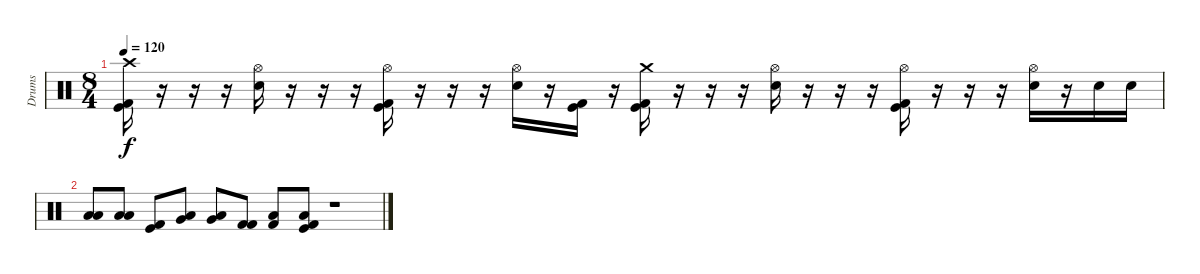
\track ("Drums" "Drums") {instrument percussion}
\staff {score}
\articulation defaults
\ts (8 4)
\tempo 120
\clef neutral
\ks c
("Crash high (hit)" "Kick (hit) 2" "Kick (hit)").16{dy f} r.16 r.16 r.16 ("Hi-Hat (open)" "Electric Snare (hit)").16 r.16 r.16 r.16 ("Hi-Hat (open)" "Kick (hit) 2" "Kick (hit)").16 r.16 r.16 r.16 ("Hi-Hat (open)" "Electric Snare (hit)").16 r.16 ("Kick (hit) 2" "Kick (hit)").16 r.16 ("Crash medium (hit)" "Kick (hit) 2" "Kick (hit)").16 r.16 r.16 r.16 ("Hi-Hat (open)" "Electric Snare (hit)").16 r.16 r.16 r.16 ("Hi-Hat (open)" "Kick (hit) 2" "Kick (hit)").16 r.16 r.16 r.16 ("Hi-Hat (open)" "Electric Snare (hit)").16 r.16 "Electric Snare (hit)".16 "Electric Snare (hit)".16 |
("Low Tom (hit)" "Low Floor Tom (hit)").8 ("Low Tom (hit)" "Low Floor Tom (hit)").8 ("Kick (hit) 2" "Kick (hit)").8 ("Very Low Tom (hit)" "Low Floor Tom (hit)").8 ("Very Low Tom (hit)" "Low Floor Tom (hit)").8 ("Kick (hit) 2" "Kick (hit) 2").8 ("Low Floor Tom (hit)" "Kick (hit) 2").8 ("Kick (hit) 2" "Low Floor Tom (hit)" "Kick (hit)").8 r.1
